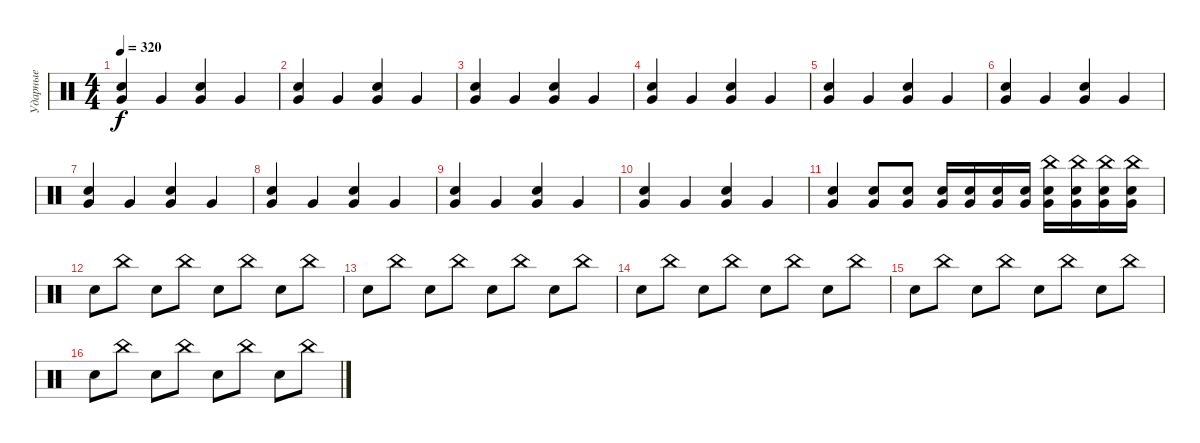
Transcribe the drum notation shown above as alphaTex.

\track ("Ударные" "Ударные") {instrument percussion}
\staff {score}
\articulation defaults
\ts (4 4)
\tempo 320
\clef neutral
\ks c
("Very Low Tom (hit)" "Electric Snare (hit)").4{dy f} "Very Low Tom (hit)".4 ("Very Low Tom (hit)" "Electric Snare (hit)").4 "Very Low Tom (hit)".4 |
("Very Low Tom (hit)" "Electric Snare (hit)").4 "Very Low Tom (hit)".4 ("Very Low Tom (hit)" "Electric Snare (hit)").4 "Very Low Tom (hit)".4 |
("Very Low Tom (hit)" "Electric Snare (hit)").4 "Very Low Tom (hit)".4 ("Very Low Tom (hit)" "Electric Snare (hit)").4 "Very Low Tom (hit)".4 |
("Very Low Tom (hit)" "Electric Snare (hit)").4 "Very Low Tom (hit)".4 ("Very Low Tom (hit)" "Electric Snare (hit)").4 "Very Low Tom (hit)".4 |
("Very Low Tom (hit)" "Electric Snare (hit)").4 "Very Low Tom (hit)".4 ("Very Low Tom (hit)" "Electric Snare (hit)").4 "Very Low Tom (hit)".4 |
("Very Low Tom (hit)" "Electric Snare (hit)").4 "Very Low Tom (hit)".4 ("Very Low Tom (hit)" "Electric Snare (hit)").4 "Very Low Tom (hit)".4 |
("Very Low Tom (hit)" "Electric Snare (hit)").4 "Very Low Tom (hit)".4 ("Very Low Tom (hit)" "Electric Snare (hit)").4 "Very Low Tom (hit)".4 |
("Very Low Tom (hit)" "Electric Snare (hit)").4 "Very Low Tom (hit)".4 ("Very Low Tom (hit)" "Electric Snare (hit)").4 "Very Low Tom (hit)".4 |
("Very Low Tom (hit)" "Electric Snare (hit)").4 "Very Low Tom (hit)".4 ("Very Low Tom (hit)" "Electric Snare (hit)").4 "Very Low Tom (hit)".4 |
("Very Low Tom (hit)" "Electric Snare (hit)").4 "Very Low Tom (hit)".4 ("Very Low Tom (hit)" "Electric Snare (hit)").4 "Very Low Tom (hit)".4 |
("Very Low Tom (hit)" "Electric Snare (hit)").4 ("Very Low Tom (hit)" "Electric Snare (hit)").8 ("Very Low Tom (hit)" "Electric Snare (hit)").8 ("Very Low Tom (hit)" "Electric Snare (hit)").16 ("Very Low Tom (hit)" "Electric Snare (hit)").16 ("Very Low Tom (hit)" "Electric Snare (hit)").16 ("Very Low Tom (hit)" "Electric Snare (hit)").16 ("Very Low Tom (hit)" "Electric Snare (hit)" "China (hit)").16 ("Very Low Tom (hit)" "Electric Snare (hit)" "China (hit)").16 ("Very Low Tom (hit)" "Electric Snare (hit)" "China (hit)").16 ("Very Low Tom (hit)" "Electric Snare (hit)" "China (hit)").16 |
"Electric Snare (hit)".8 "China (hit)".8 "Electric Snare (hit)".8 "China (hit)".8 "Electric Snare (hit)".8 "China (hit)".8 "Electric Snare (hit)".8 "China (hit)".8 |
"Electric Snare (hit)".8 "China (hit)".8 "Electric Snare (hit)".8 "China (hit)".8 "Electric Snare (hit)".8 "China (hit)".8 "Electric Snare (hit)".8 "China (hit)".8 |
"Electric Snare (hit)".8 "China (hit)".8 "Electric Snare (hit)".8 "China (hit)".8 "Electric Snare (hit)".8 "China (hit)".8 "Electric Snare (hit)".8 "China (hit)".8 |
"Electric Snare (hit)".8 "China (hit)".8 "Electric Snare (hit)".8 "China (hit)".8 "Electric Snare (hit)".8 "China (hit)".8 "Electric Snare (hit)".8 "China (hit)".8 |
"Electric Snare (hit)".8 "China (hit)".8 "Electric Snare (hit)".8 "China (hit)".8 "Electric Snare (hit)".8 "China (hit)".8 "Electric Snare (hit)".8 "China (hit)".8
